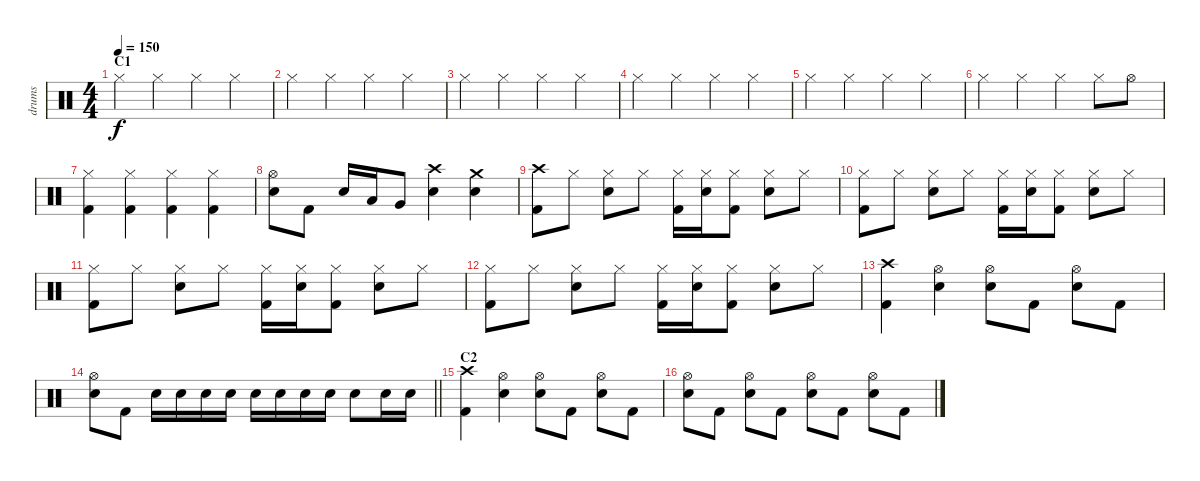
\track ("drums" "drums") {instrument percussion}
\staff {score}
\articulation defaults
\ts (4 4)
\section ("" "C1")
\tempo 150
\clef neutral
\ks c "Hi-Hat (closed)".4{dy f} "Hi-Hat (closed)".4 "Hi-Hat (closed)".4 "Hi-Hat (closed)".4
|
"Hi-Hat (closed)".4 "Hi-Hat (closed)".4 "Hi-Hat (closed)".4 "Hi-Hat (closed)".4 |
"Hi-Hat (closed)".4 "Hi-Hat (closed)".4 "Hi-Hat (closed)".4 "Hi-Hat (closed)".4 |
"Hi-Hat (closed)".4 "Hi-Hat (closed)".4 "Hi-Hat (closed)".4 "Hi-Hat (closed)".4 |
"Hi-Hat (closed)".4 "Hi-Hat (closed)".4 "Hi-Hat (closed)".4 "Hi-Hat (closed)".4 |
"Hi-Hat (closed)".4 "Hi-Hat (closed)".4 "Hi-Hat (closed)".4 "Hi-Hat (closed)".8 "Hi-Hat (open)".8 |
("Hi-Hat (closed)" "Kick (hit) 2").4 ("Hi-Hat (closed)" "Kick (hit) 2").4 ("Hi-Hat (closed)" "Kick (hit) 2").4 ("Hi-Hat (closed)" "Kick (hit) 2").4 |
("Hi-Hat (open)" "Electric Snare (hit)").8 "Kick (hit) 2".8 "Electric Snare (hit)".16 "Low Tom (hit)".16 "Very Low Tom (hit)".8 ("Crash high (hit)" "Electric Snare (hit)").4 ("Crash medium (hit)" "Electric Snare (hit)").4 |
("Crash high (hit)" "Kick (hit) 2").8 "Hi-Hat (closed)".8 ("Hi-Hat (closed)" "Electric Snare (hit)").8 "Hi-Hat (closed)".8 ("Hi-Hat (closed)" "Kick (hit) 2").16 ("Hi-Hat (closed)" "Electric Snare (hit)").16 ("Hi-Hat (closed)" "Kick (hit) 2").8 ("Hi-Hat (closed)" "Electric Snare (hit)").8 "Hi-Hat (closed)".8 |
("Hi-Hat (closed)" "Kick (hit) 2").8 "Hi-Hat (closed)".8 ("Hi-Hat (closed)" "Electric Snare (hit)").8 "Hi-Hat (closed)".8 ("Hi-Hat (closed)" "Kick (hit) 2").16 ("Hi-Hat (closed)" "Electric Snare (hit)").16 ("Hi-Hat (closed)" "Kick (hit) 2").8 ("Hi-Hat (closed)" "Electric Snare (hit)").8 "Hi-Hat (closed)".8 |
("Hi-Hat (closed)" "Kick (hit) 2").8 "Hi-Hat (closed)".8 ("Hi-Hat (closed)" "Electric Snare (hit)").8 "Hi-Hat (closed)".8 ("Hi-Hat (closed)" "Kick (hit) 2").16 ("Hi-Hat (closed)" "Electric Snare (hit)").16 ("Hi-Hat (closed)" "Kick (hit) 2").8 ("Hi-Hat (closed)" "Electric Snare (hit)").8 "Hi-Hat (closed)".8 |
("Hi-Hat (closed)" "Kick (hit) 2").8 "Hi-Hat (closed)".8 ("Hi-Hat (closed)" "Electric Snare (hit)").8 "Hi-Hat (closed)".8 ("Hi-Hat (closed)" "Kick (hit) 2").16 ("Hi-Hat (closed)" "Electric Snare (hit)").16 ("Hi-Hat (closed)" "Kick (hit) 2").8 ("Hi-Hat (closed)" "Electric Snare (hit)").8 "Hi-Hat (closed)".8 |
("Crash high (hit)" "Kick (hit) 2").4 ("Hi-Hat (open)" "Electric Snare (hit)").4 ("Hi-Hat (open)" "Electric Snare (hit)").8 "Kick (hit) 2".8 ("Hi-Hat (open)" "Electric Snare (hit)").8 "Kick (hit) 2".8 |
\barLineRight lightlight
("Hi-Hat (open)" "Electric Snare (hit)").8 "Kick (hit) 2".8 "Electric Snare (hit)".16 "Electric Snare (hit)".16 "Electric Snare (hit)".16 "Electric Snare (hit)".16 "Electric Snare (hit)".16 "Electric Snare (hit)".16 "Electric Snare (hit)".16 "Electric Snare (hit)".16 "Electric Snare (hit)".8 "Electric Snare (hit)".16 "Electric Snare (hit)".16 |
\section ("" "C2")
("Crash high (hit)" "Kick (hit) 2").4 ("Hi-Hat (open)" "Electric Snare (hit)").4 ("Hi-Hat (open)" "Electric Snare (hit)").8 "Kick (hit) 2".8 ("Hi-Hat (open)" "Electric Snare (hit)").8 "Kick (hit) 2".8 |
("Hi-Hat (open)" "Electric Snare (hit)").8 "Kick (hit) 2".8 ("Hi-Hat (open)" "Electric Snare (hit)").8 "Kick (hit) 2".8 ("Hi-Hat (open)" "Electric Snare (hit)").8 "Kick (hit) 2".8 ("Hi-Hat (open)" "Electric Snare (hit)").8 "Kick (hit) 2".8
